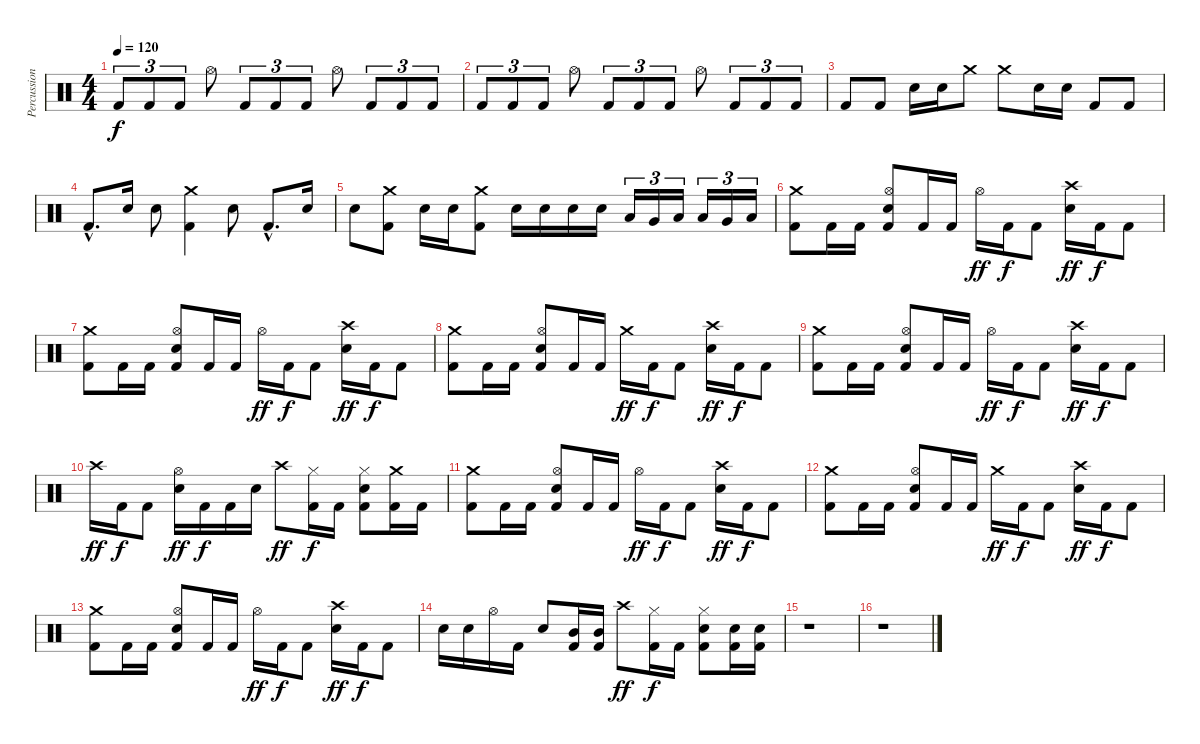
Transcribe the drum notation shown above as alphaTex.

\track ("Percussioni" "Percussion") {instrument percussion}
\staff {score}
\articulation defaults
\ts (4 4)
\tempo 120
\clef neutral
\ks c "Kick (hit) 2".8{tu (3 2) dy f} "Kick (hit) 2".8{tu (3 2)} "Kick (hit) 2".8{tu (3 2)} "Hi-Hat (open)".8 "Kick (hit) 2".8{tu (3 2)} "Kick (hit) 2".8{tu (3 2)} "Kick (hit) 2".8{tu (3 2)} "Hi-Hat (open)".8 "Kick (hit) 2".8{tu (3 2)} "Kick (hit) 2".8{tu (3 2)} "Kick (hit) 2".8{tu (3 2)}
|
"Kick (hit) 2".8{tu (3 2)} "Kick (hit) 2".8{tu (3 2)} "Kick (hit) 2".8{tu (3 2)} "Hi-Hat (open)".8 "Kick (hit) 2".8{tu (3 2)} "Kick (hit) 2".8{tu (3 2)} "Kick (hit) 2".8{tu (3 2)} "Hi-Hat (open)".8 "Kick (hit) 2".8{tu (3 2)} "Kick (hit) 2".8{tu (3 2)} "Kick (hit) 2".8{tu (3 2)} |
"Kick (hit) 2".8 "Kick (hit) 2".8 "Electric Snare (hit)".16 "Electric Snare (hit)".16 "Crash medium (hit)".8 "Crash medium (hit)".8 "Electric Snare (hit)".16 "Electric Snare (hit)".16 "Kick (hit) 2".8 "Kick (hit) 2".8 |
"Kick (hit) 2"{hac}.8{d} "Electric Snare (hit)".16 "Electric Snare (hit)".8 ("Crash medium (hit)" "Kick (hit) 2").4 "Electric Snare (hit)".8 "Kick (hit) 2"{hac}.8{d} "Electric Snare (hit)".16 |
"Electric Snare (hit)".8 ("Crash medium (hit)" "Kick (hit) 2").8 "Electric Snare (hit)".16 "Electric Snare (hit)".16 ("Crash medium (hit)" "Kick (hit) 2").8 "Electric Snare (hit)".16 "Electric Snare (hit)".16 "Electric Snare (hit)".16 "Electric Snare (hit)".16 "Low Tom (hit)".16{tu (3 2)} "Very Low Tom (hit)".16{tu (3 2)} "Low Floor Tom (hit)".16{tu (3 2)} "Low Tom (hit)".16{tu (3 2)} "Very Low Tom (hit)".16{tu (3 2)} "Low Floor Tom (hit)".16{tu (3 2)} |
("Crash medium (hit)" "Kick (hit) 2").8 "Kick (hit) 2".16 "Kick (hit) 2".16 ("Hi-Hat (open)" "Electric Snare (hit)" "Kick (hit) 2").8 "Kick (hit) 2".16 "Kick (hit) 2".16 "Hi-Hat (open)".16{dy ff} "Kick (hit) 2".16{dy f} "Kick (hit) 2".8 ("Crash high (hit)" "Electric Snare (hit)").16{dy ff} "Kick (hit) 2".16{dy f} "Kick (hit) 2".8 |
("Crash medium (hit)" "Kick (hit) 2").8 "Kick (hit) 2".16 "Kick (hit) 2".16 ("Hi-Hat (open)" "Electric Snare (hit)" "Kick (hit) 2").8 "Kick (hit) 2".16 "Kick (hit) 2".16 "Hi-Hat (open)".16{dy ff} "Kick (hit) 2".16{dy f} "Kick (hit) 2".8 ("Crash high (hit)" "Electric Snare (hit)").16{dy ff} "Kick (hit) 2".16{dy f} "Kick (hit) 2".8 |
("Crash medium (hit)" "Kick (hit) 2").8 "Kick (hit) 2".16 "Kick (hit) 2".16 ("Hi-Hat (open)" "Electric Snare (hit)" "Kick (hit) 2").8 "Kick (hit) 2".16 "Kick (hit) 2".16 "Crash medium (hit)".16{dy ff} "Kick (hit) 2".16{dy f} "Kick (hit) 2".8 ("Crash high (hit)" "Electric Snare (hit)").16{dy ff} "Kick (hit) 2".16{dy f} "Kick (hit) 2".8 |
("Crash medium (hit)" "Kick (hit) 2").8 "Kick (hit) 2".16 "Kick (hit) 2".16 ("Hi-Hat (open)" "Electric Snare (hit)" "Kick (hit) 2").8 "Kick (hit) 2".16 "Kick (hit) 2".16 "Hi-Hat (open)".16{dy ff} "Kick (hit) 2".16{dy f} "Kick (hit) 2".8 ("Crash high (hit)" "Electric Snare (hit)").16{dy ff} "Kick (hit) 2".16{dy f} "Kick (hit) 2".8 |
"Crash high (hit)".16{dy ff} "Kick (hit) 2".16{dy f} "Kick (hit) 2".8 ("Hi-Hat (open)" "Electric Snare (hit)").16{dy ff} "Kick (hit) 2".16{dy f} "Kick (hit) 2".16 "Electric Snare (hit)".16 "Crash high (hit)".8{dy ff} ("Hi-Hat (closed)" "Kick (hit) 2").16{dy f} "Kick (hit) 2".16 ("Hi-Hat (closed)" "Electric Snare (hit)" "Kick (hit) 2").8 ("Crash medium (hit)" "Kick (hit) 2").16 "Kick (hit) 2".16 |
("Crash medium (hit)" "Kick (hit) 2").8 "Kick (hit) 2".16 "Kick (hit) 2".16 ("Hi-Hat (open)" "Electric Snare (hit)" "Kick (hit) 2").8 "Kick (hit) 2".16 "Kick (hit) 2".16 "Hi-Hat (open)".16{dy ff} "Kick (hit) 2".16{dy f} "Kick (hit) 2".8 ("Crash high (hit)" "Electric Snare (hit)").16{dy ff} "Kick (hit) 2".16{dy f} "Kick (hit) 2".8 |
("Crash medium (hit)" "Kick (hit) 2").8 "Kick (hit) 2".16 "Kick (hit) 2".16 ("Hi-Hat (open)" "Electric Snare (hit)" "Kick (hit) 2").8 "Kick (hit) 2".16 "Kick (hit) 2".16 "Crash medium (hit)".16{dy ff} "Kick (hit) 2".16{dy f} "Kick (hit) 2".8 ("Crash high (hit)" "Electric Snare (hit)").16{dy ff} "Kick (hit) 2".16{dy f} "Kick (hit) 2".8 |
("Crash medium (hit)" "Kick (hit) 2").8 "Kick (hit) 2".16 "Kick (hit) 2".16 ("Hi-Hat (open)" "Electric Snare (hit)" "Kick (hit) 2").8 "Kick (hit) 2".16 "Kick (hit) 2".16 "Hi-Hat (open)".16{dy ff} "Kick (hit) 2".16{dy f} "Kick (hit) 2".8 ("Crash high (hit)" "Electric Snare (hit)").16{dy ff} "Kick (hit) 2".16{dy f} "Kick (hit) 2".8 |
"Electric Snare (hit)".16 "Electric Snare (hit)".16 "Hi-Hat (open)".16 "Kick (hit) 2".16 "Electric Snare (hit)".8 ("Mid Tom (hit)" "Kick (hit) 2").16 ("Mid Tom (hit)" "Kick (hit) 2").16 "Crash high (hit)".8{dy ff} ("Hi-Hat (closed)" "Kick (hit) 2").16{dy f} "Kick (hit) 2".16 ("Hi-Hat (closed)" "Electric Snare (hit)" "Kick (hit) 2").8 ("Electric Snare (hit)" "Kick (hit) 2").16 ("Electric Snare (hit)" "Kick (hit) 2").16 |
r.1 |
r.1
